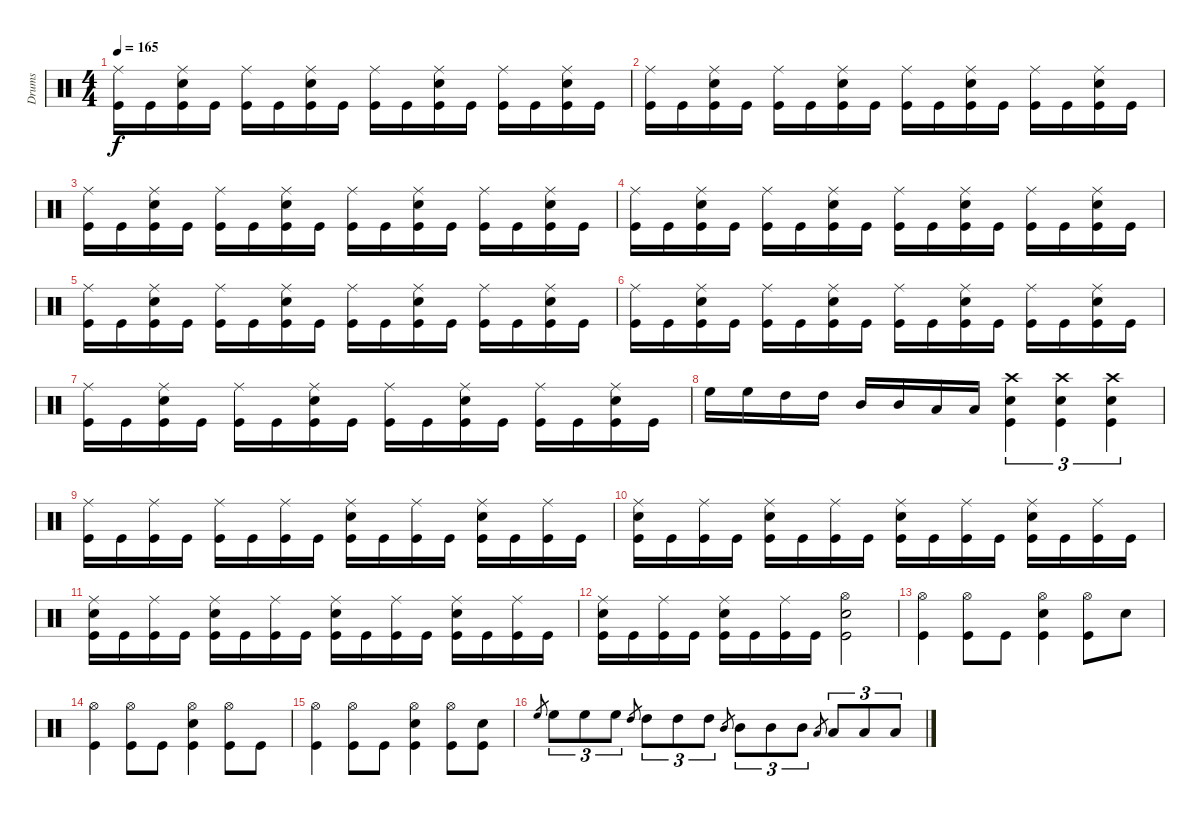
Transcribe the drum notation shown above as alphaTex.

\track ("Drums" "Drums") {instrument percussion}
\staff {score}
\articulation defaults
\ts (4 4)
\tempo 165
\clef neutral
\ks c
("Kick (hit)" "Ride (middle)").16{dy f} "Kick (hit)".16 ("Kick (hit)" "Snare (hit) 2" "Ride (middle)").16 "Kick (hit)".16 ("Kick (hit)" "Ride (middle)").16 "Kick (hit)".16 ("Kick (hit)" "Snare (hit) 2" "Ride (middle)").16 "Kick (hit)".16 ("Kick (hit)" "Ride (middle)").16 "Kick (hit)".16 ("Kick (hit)" "Snare (hit) 2" "Ride (middle)").16 "Kick (hit)".16 ("Kick (hit)" "Ride (middle)").16 "Kick (hit)".16 ("Kick (hit)" "Snare (hit) 2" "Ride (middle)").16 "Kick (hit)".16 |
("Kick (hit)" "Ride (middle)").16 "Kick (hit)".16 ("Kick (hit)" "Snare (hit) 2" "Ride (middle)").16 "Kick (hit)".16 ("Kick (hit)" "Ride (middle)").16 "Kick (hit)".16 ("Kick (hit)" "Snare (hit) 2" "Ride (middle)").16 "Kick (hit)".16 ("Kick (hit)" "Ride (middle)").16 "Kick (hit)".16 ("Kick (hit)" "Snare (hit) 2" "Ride (middle)").16 "Kick (hit)".16 ("Kick (hit)" "Ride (middle)").16 "Kick (hit)".16 ("Kick (hit)" "Snare (hit) 2" "Ride (middle)").16 "Kick (hit)".16 |
("Kick (hit)" "Ride (middle)").16 "Kick (hit)".16 ("Kick (hit)" "Snare (hit) 2" "Ride (middle)").16 "Kick (hit)".16 ("Kick (hit)" "Ride (middle)").16 "Kick (hit)".16 ("Kick (hit)" "Snare (hit) 2" "Ride (middle)").16 "Kick (hit)".16 ("Kick (hit)" "Ride (middle)").16 "Kick (hit)".16 ("Kick (hit)" "Snare (hit) 2" "Ride (middle)").16 "Kick (hit)".16 ("Kick (hit)" "Ride (middle)").16 "Kick (hit)".16 ("Kick (hit)" "Snare (hit) 2" "Ride (middle)").16 "Kick (hit)".16 |
("Kick (hit)" "Ride (middle)").16 "Kick (hit)".16 ("Kick (hit)" "Snare (hit) 2" "Ride (middle)").16 "Kick (hit)".16 ("Kick (hit)" "Ride (middle)").16 "Kick (hit)".16 ("Kick (hit)" "Snare (hit) 2" "Ride (middle)").16 "Kick (hit)".16 ("Kick (hit)" "Ride (middle)").16 "Kick (hit)".16 ("Kick (hit)" "Snare (hit) 2" "Ride (middle)").16 "Kick (hit)".16 ("Kick (hit)" "Ride (middle)").16 "Kick (hit)".16 ("Kick (hit)" "Snare (hit) 2" "Ride (middle)").16 "Kick (hit)".16 |
("Kick (hit)" "Ride (middle)").16 "Kick (hit)".16 ("Kick (hit)" "Snare (hit) 2" "Ride (middle)").16 "Kick (hit)".16 ("Kick (hit)" "Ride (middle)").16 "Kick (hit)".16 ("Kick (hit)" "Snare (hit) 2" "Ride (middle)").16 "Kick (hit)".16 ("Kick (hit)" "Ride (middle)").16 "Kick (hit)".16 ("Kick (hit)" "Snare (hit) 2" "Ride (middle)").16 "Kick (hit)".16 ("Kick (hit)" "Ride (middle)").16 "Kick (hit)".16 ("Kick (hit)" "Snare (hit) 2" "Ride (middle)").16 "Kick (hit)".16 |
("Kick (hit)" "Ride (middle)").16 "Kick (hit)".16 ("Kick (hit)" "Snare (hit) 2" "Ride (middle)").16 "Kick (hit)".16 ("Kick (hit)" "Ride (middle)").16 "Kick (hit)".16 ("Kick (hit)" "Snare (hit) 2" "Ride (middle)").16 "Kick (hit)".16 ("Kick (hit)" "Ride (middle)").16 "Kick (hit)".16 ("Kick (hit)" "Snare (hit) 2" "Ride (middle)").16 "Kick (hit)".16 ("Kick (hit)" "Ride (middle)").16 "Kick (hit)".16 ("Kick (hit)" "Snare (hit) 2" "Ride (middle)").16 "Kick (hit)".16 |
("Kick (hit)" "Ride (middle)").16 "Kick (hit)".16 ("Kick (hit)" "Snare (hit) 2" "Ride (middle)").16 "Kick (hit)".16 ("Kick (hit)" "Ride (middle)").16 "Kick (hit)".16 ("Kick (hit)" "Snare (hit) 2" "Ride (middle)").16 "Kick (hit)".16 ("Kick (hit)" "Ride (middle)").16 "Kick (hit)".16 ("Kick (hit)" "Snare (hit) 2" "Ride (middle)").16 "Kick (hit)".16 ("Kick (hit)" "Ride (middle)").16 "Kick (hit)".16 ("Kick (hit)" "Snare (hit) 2" "Ride (middle)").16 "Kick (hit)".16 |
"High Floor Tom (hit)".16 "High Floor Tom (hit)".16 "High Tom (hit)".16 "High Tom (hit)".16 "Mid Tom (hit)".16 "Mid Tom (hit)".16 "Low Tom (hit)".16 "Low Tom (hit)".16 ("Kick (hit)" "Snare (hit) 2" "Crash high (hit)").4{tu (3 2)} ("Kick (hit)" "Snare (hit) 2" "Crash high (hit)").4{tu (3 2)} ("Kick (hit)" "Snare (hit) 2" "Crash high (hit)").4{tu (3 2)} |
("Kick (hit)" "Ride (middle)").16 "Kick (hit)".16 ("Kick (hit)" "Ride (middle)").16 "Kick (hit)".16 ("Kick (hit)" "Ride (middle)").16 "Kick (hit)".16 ("Kick (hit)" "Ride (middle)").16 "Kick (hit)".16 ("Kick (hit)" "Snare (hit) 2" "Ride (middle)").16 "Kick (hit)".16 ("Kick (hit)" "Ride (middle)").16 "Kick (hit)".16 ("Kick (hit)" "Snare (hit) 2" "Ride (middle)").16 "Kick (hit)".16 ("Kick (hit)" "Ride (middle)").16 "Kick (hit)".16 |
("Kick (hit)" "Snare (hit) 2" "Ride (middle)").16 "Kick (hit)".16 ("Kick (hit)" "Ride (middle)").16 "Kick (hit)".16 ("Kick (hit)" "Snare (hit) 2" "Ride (middle)").16 "Kick (hit)".16 ("Kick (hit)" "Ride (middle)").16 "Kick (hit)".16 ("Kick (hit)" "Snare (hit) 2" "Ride (middle)").16 "Kick (hit)".16 ("Kick (hit)" "Ride (middle)").16 "Kick (hit)".16 ("Kick (hit)" "Snare (hit) 2" "Ride (middle)").16 "Kick (hit)".16 ("Kick (hit)" "Ride (middle)").16 "Kick (hit)".16 |
("Kick (hit)" "Snare (hit) 2" "Ride (middle)").16 "Kick (hit)".16 ("Kick (hit)" "Ride (middle)").16 "Kick (hit)".16 ("Kick (hit)" "Snare (hit) 2" "Ride (middle)").16 "Kick (hit)".16 ("Kick (hit)" "Ride (middle)").16 "Kick (hit)".16 ("Kick (hit)" "Snare (hit) 2" "Ride (middle)").16 "Kick (hit)".16 ("Kick (hit)" "Ride (middle)").16 "Kick (hit)".16 ("Kick (hit)" "Snare (hit) 2" "Ride (middle)").16 "Kick (hit)".16 ("Kick (hit)" "Ride (middle)").16 "Kick (hit)".16 |
("Kick (hit)" "Snare (hit) 2" "Ride (middle)").16 "Kick (hit)".16 ("Kick (hit)" "Ride (middle)").16 "Kick (hit)".16 ("Kick (hit)" "Snare (hit) 2" "Ride (middle)").16 "Kick (hit)".16 ("Kick (hit)" "Ride (middle)").16 "Kick (hit)".16 ("Kick (hit)" "Snare (hit) 2" "Hi-Hat (open)").2 |
("Kick (hit)" "Hi-Hat (open)").4 ("Kick (hit)" "Hi-Hat (open)").8 "Kick (hit)".8 ("Kick (hit)" "Snare (hit) 2" "Hi-Hat (open)").4 ("Kick (hit)" "Hi-Hat (open)").8 "Snare (hit) 2".8 |
("Kick (hit)" "Hi-Hat (open)").4 ("Kick (hit)" "Hi-Hat (open)").8 "Kick (hit)".8 ("Kick (hit)" "Snare (hit) 2" "Hi-Hat (open)").4 ("Kick (hit)" "Hi-Hat (open)").8 "Kick (hit)".8 |
("Kick (hit)" "Hi-Hat (open)").4 ("Kick (hit)" "Hi-Hat (open)").8 "Kick (hit)".8 ("Kick (hit)" "Snare (hit) 2" "Hi-Hat (open)").4 ("Kick (hit)" "Hi-Hat (open)").8 ("Snare (hit) 2" "Kick (hit)").8 |
"High Floor Tom (hit)".8{gr} "High Floor Tom (hit)".8{tu (3 2)} "High Floor Tom (hit)".8{tu (3 2)} "High Floor Tom (hit)".8{tu (3 2)} "High Tom (hit)".8{gr} "High Tom (hit)".8{tu (3 2)} "High Tom (hit)".8{tu (3 2)} "High Tom (hit)".8{tu (3 2)} "Mid Tom (hit)".8{gr} "Mid Tom (hit)".8{tu (3 2)} "Mid Tom (hit)".8{tu (3 2)} "Mid Tom (hit)".8{tu (3 2)} "Low Tom (hit)".8{gr} "Low Tom (hit)".8{tu (3 2)} "Low Tom (hit)".8{tu (3 2)} "Low Tom (hit)".8{tu (3 2)}
